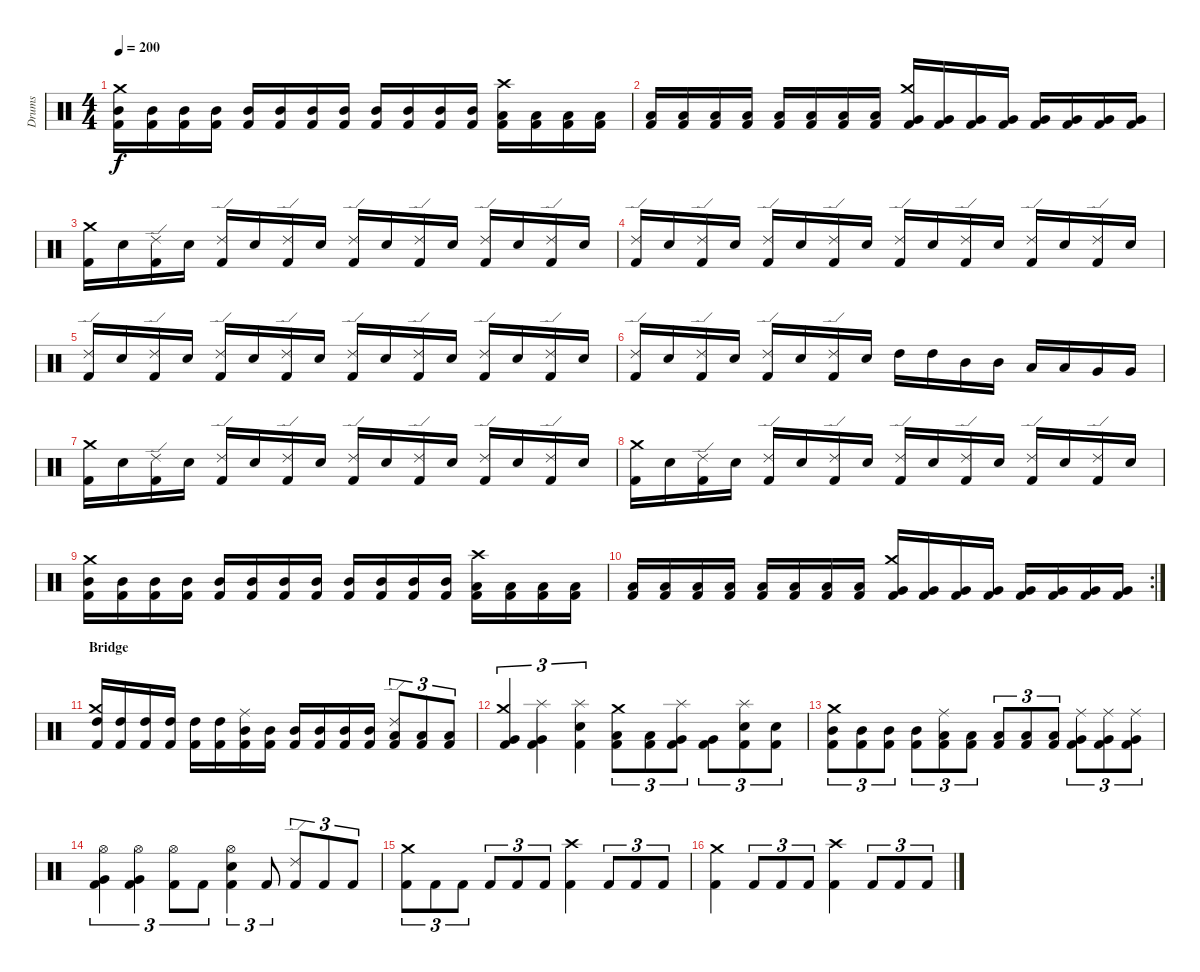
\track ("Drums" "Drums") {instrument percussion}
\staff {score}
\articulation defaults
\ts (4 4)
\tempo 200
\clef neutral
\ks c
("Kick (hit) 2" "Mid Tom (hit)" "Crash medium (hit)").16{dy f} ("Kick (hit) 2" "Mid Tom (hit)").16 ("Kick (hit) 2" "Mid Tom (hit)").16 ("Kick (hit) 2" "Mid Tom (hit)").16 ("Kick (hit) 2" "Mid Tom (hit)").16 ("Kick (hit) 2" "Mid Tom (hit)").16 ("Kick (hit) 2" "Mid Tom (hit)").16 ("Kick (hit) 2" "Mid Tom (hit)").16 ("Kick (hit) 2" "Mid Tom (hit)").16 ("Kick (hit) 2" "Mid Tom (hit)").16 ("Kick (hit) 2" "Mid Tom (hit)").16 ("Kick (hit) 2" "Mid Tom (hit)").16 ("Kick (hit) 2" "Low Tom (hit)" "Crash high (hit)").16 ("Kick (hit) 2" "Low Tom (hit)").16 ("Kick (hit) 2" "Low Tom (hit)").16 ("Kick (hit) 2" "Low Tom (hit)").16 |
("Kick (hit) 2" "Low Tom (hit)").16 ("Kick (hit) 2" "Low Tom (hit)").16 ("Kick (hit) 2" "Low Tom (hit)").16 ("Kick (hit) 2" "Low Tom (hit)").16 ("Kick (hit) 2" "Low Tom (hit)").16 ("Kick (hit) 2" "Low Tom (hit)").16 ("Kick (hit) 2" "Low Tom (hit)").16 ("Kick (hit) 2" "Low Tom (hit)").16 ("Kick (hit) 2" "Very Low Tom (hit)" "Crash medium (hit)").16 ("Kick (hit) 2" "Very Low Tom (hit)").16 ("Kick (hit) 2" "Very Low Tom (hit)").16 ("Kick (hit) 2" "Very Low Tom (hit)").16 ("Kick (hit) 2" "Very Low Tom (hit)").16 ("Kick (hit) 2" "Very Low Tom (hit)").16 ("Kick (hit) 2" "Very Low Tom (hit)").16 ("Kick (hit) 2" "Very Low Tom (hit)").16 |
("Kick (hit) 2" "Crash medium (hit)").16 "Electric Snare (hit)".16 ("Kick (hit) 2" "Ride (edge) 2").16 "Electric Snare (hit)".16 ("Kick (hit) 2" "Ride (edge) 2").16 "Electric Snare (hit)".16 ("Kick (hit) 2" "Ride (edge) 2").16 "Electric Snare (hit)".16 ("Kick (hit) 2" "Ride (edge) 2").16 "Electric Snare (hit)".16 ("Kick (hit) 2" "Ride (edge) 2").16 "Electric Snare (hit)".16 ("Kick (hit) 2" "Ride (edge) 2").16 "Electric Snare (hit)".16 ("Kick (hit) 2" "Ride (edge) 2").16 "Electric Snare (hit)".16 |
("Kick (hit) 2" "Ride (edge) 2").16 "Electric Snare (hit)".16 ("Kick (hit) 2" "Ride (edge) 2").16 "Electric Snare (hit)".16 ("Kick (hit) 2" "Ride (edge) 2").16 "Electric Snare (hit)".16 ("Kick (hit) 2" "Ride (edge) 2").16 "Electric Snare (hit)".16 ("Kick (hit) 2" "Ride (edge) 2").16 "Electric Snare (hit)".16 ("Kick (hit) 2" "Ride (edge) 2").16 "Electric Snare (hit)".16 ("Kick (hit) 2" "Ride (edge) 2").16 "Electric Snare (hit)".16 ("Kick (hit) 2" "Ride (edge) 2").16 "Electric Snare (hit)".16 |
("Kick (hit) 2" "Ride (edge) 2").16 "Electric Snare (hit)".16 ("Kick (hit) 2" "Ride (edge) 2").16 "Electric Snare (hit)".16 ("Kick (hit) 2" "Ride (edge) 2").16 "Electric Snare (hit)".16 ("Kick (hit) 2" "Ride (edge) 2").16 "Electric Snare (hit)".16 ("Kick (hit) 2" "Ride (edge) 2").16 "Electric Snare (hit)".16 ("Kick (hit) 2" "Ride (edge) 2").16 "Electric Snare (hit)".16 ("Kick (hit) 2" "Ride (edge) 2").16 "Electric Snare (hit)".16 ("Kick (hit) 2" "Ride (edge) 2").16 "Electric Snare (hit)".16 |
("Kick (hit) 2" "Ride (edge) 2").16 "Electric Snare (hit)".16 ("Kick (hit) 2" "Ride (edge) 2").16 "Electric Snare (hit)".16 ("Kick (hit) 2" "Ride (edge) 2").16 "Electric Snare (hit)".16 ("Kick (hit) 2" "Ride (edge) 2").16 "Electric Snare (hit)".16 "High Tom (hit)".16 "High Tom (hit)".16 "Mid Tom (hit)".16 "Mid Tom (hit)".16 "Low Tom (hit)".16 "Low Tom (hit)".16 "Very Low Tom (hit)".16 "Very Low Tom (hit)".16 |
("Kick (hit) 2" "Crash medium (hit)").16 "Electric Snare (hit)".16 ("Kick (hit) 2" "Ride (edge) 2").16 "Electric Snare (hit)".16 ("Kick (hit) 2" "Ride (edge) 2").16 "Electric Snare (hit)".16 ("Kick (hit) 2" "Ride (edge) 2").16 "Electric Snare (hit)".16 ("Kick (hit) 2" "Ride (edge) 2").16 "Electric Snare (hit)".16 ("Kick (hit) 2" "Ride (edge) 2").16 "Electric Snare (hit)".16 ("Kick (hit) 2" "Ride (edge) 2").16 "Electric Snare (hit)".16 ("Kick (hit) 2" "Ride (edge) 2").16 "Electric Snare (hit)".16 |
("Kick (hit) 2" "Crash medium (hit)").16 "Electric Snare (hit)".16 ("Kick (hit) 2" "Ride (edge) 2").16 "Electric Snare (hit)".16 ("Kick (hit) 2" "Ride (edge) 2").16 "Electric Snare (hit)".16 ("Kick (hit) 2" "Ride (edge) 2").16 "Electric Snare (hit)".16 ("Kick (hit) 2" "Ride (edge) 2").16 "Electric Snare (hit)".16 ("Kick (hit) 2" "Ride (edge) 2").16 "Electric Snare (hit)".16 ("Kick (hit) 2" "Ride (edge) 2").16 "Electric Snare (hit)".16 ("Kick (hit) 2" "Ride (edge) 2").16 "Electric Snare (hit)".16 |
("Kick (hit) 2" "Mid Tom (hit)" "Crash medium (hit)").16 ("Kick (hit) 2" "Mid Tom (hit)").16 ("Kick (hit) 2" "Mid Tom (hit)").16 ("Kick (hit) 2" "Mid Tom (hit)").16 ("Kick (hit) 2" "Mid Tom (hit)").16 ("Kick (hit) 2" "Mid Tom (hit)").16 ("Kick (hit) 2" "Mid Tom (hit)").16 ("Kick (hit) 2" "Mid Tom (hit)").16 ("Kick (hit) 2" "Mid Tom (hit)").16 ("Kick (hit) 2" "Mid Tom (hit)").16 ("Kick (hit) 2" "Mid Tom (hit)").16 ("Kick (hit) 2" "Mid Tom (hit)").16 ("Kick (hit) 2" "Low Tom (hit)" "Crash high (hit)").16 ("Kick (hit) 2" "Low Tom (hit)").16 ("Kick (hit) 2" "Low Tom (hit)").16 ("Kick (hit) 2" "Low Tom (hit)").16 |
\rc 2
("Kick (hit) 2" "Low Tom (hit)").16 ("Kick (hit) 2" "Low Tom (hit)").16 ("Kick (hit) 2" "Low Tom (hit)").16 ("Kick (hit) 2" "Low Tom (hit)").16 ("Kick (hit) 2" "Low Tom (hit)").16 ("Kick (hit) 2" "Low Tom (hit)").16 ("Kick (hit) 2" "Low Tom (hit)").16 ("Kick (hit) 2" "Low Tom (hit)").16 ("Kick (hit) 2" "Very Low Tom (hit)" "Crash medium (hit)").16 ("Kick (hit) 2" "Very Low Tom (hit)").16 ("Kick (hit) 2" "Very Low Tom (hit)").16 ("Kick (hit) 2" "Very Low Tom (hit)").16 ("Kick (hit) 2" "Very Low Tom (hit)").16 ("Kick (hit) 2" "Very Low Tom (hit)").16 ("Kick (hit) 2" "Very Low Tom (hit)").16 ("Kick (hit) 2" "Very Low Tom (hit)").16 |
\section ("" "Bridge")
("Kick (hit) 2" "High Tom (hit)" "Crash medium (hit)").16 ("Kick (hit) 2" "High Tom (hit)").16 ("Kick (hit) 2" "High Tom (hit)").16 ("Kick (hit) 2" "High Tom (hit)").16 ("Kick (hit) 2" "High Tom (hit)").16 ("Kick (hit) 2" "High Tom (hit)").16 ("Kick (hit) 2" "Mid Tom (hit)" "Ride (middle)").16 ("Kick (hit) 2" "Mid Tom (hit)").16 ("Kick (hit) 2" "Mid Tom (hit)").16 ("Kick (hit) 2" "Mid Tom (hit)").16 ("Kick (hit) 2" "Mid Tom (hit)").16 ("Kick (hit) 2" "Mid Tom (hit)").16 ("Kick (hit) 2" "Low Tom (hit)" "Ride (edge) 2").8{tu (3 2)} ("Kick (hit) 2" "Low Tom (hit)").8{tu (3 2)} ("Kick (hit) 2" "Low Tom (hit)").8{tu (3 2)} |
("Kick (hit) 2" "Very Low Tom (hit)" "Crash medium (hit)").4{tu (3 2)} ("Kick (hit) 2" "Very Low Tom (hit)" "Splash (hit)").4{tu (3 2)} ("Kick (hit) 2" "Electric Snare (hit)" "Splash (hit)").4{tu (3 2)} ("Kick (hit) 2" "Low Tom (hit)" "Crash medium (hit)").8{tu (3 2)} ("Kick (hit) 2" "Low Tom (hit)").8{tu (3 2)} ("Kick (hit) 2" "Very Low Tom (hit)" "Splash (hit)").8{tu (3 2)} ("Kick (hit) 2" "Very Low Tom (hit)").8{tu (3 2)} ("Kick (hit) 2" "Electric Snare (hit)" "Splash (hit)").8{tu (3 2)} ("Kick (hit) 2" "Electric Snare (hit)").8{tu (3 2)} |
("Kick (hit) 2" "Mid Tom (hit)" "Crash medium (hit)").8{tu (3 2)} ("Kick (hit) 2" "Mid Tom (hit)").8{tu (3 2)} ("Kick (hit) 2" "Mid Tom (hit)").8{tu (3 2)} ("Kick (hit) 2" "Mid Tom (hit)").8{tu (3 2)} ("Kick (hit) 2" "Low Tom (hit)" "Ride (middle)").8{tu (3 2)} ("Kick (hit) 2" "Low Tom (hit)").8{tu (3 2)} ("Kick (hit) 2" "Low Tom (hit)").8{tu (3 2)} ("Kick (hit) 2" "Low Tom (hit)").8{tu (3 2)} ("Kick (hit) 2" "Low Tom (hit)").8{tu (3 2)} ("Kick (hit) 2" "Very Low Tom (hit)" "Ride (middle)").8{tu (3 2)} ("Kick (hit) 2" "Very Low Tom (hit)" "Ride (middle)").8{tu (3 2)} ("Kick (hit) 2" "Very Low Tom (hit)" "Ride (middle)").8{tu (3 2)} |
("Kick (hit) 2" "Very Low Tom (hit)" "Hi-Hat (open)").4{tu (3 2)} ("Kick (hit) 2" "Very Low Tom (hit)" "Hi-Hat (open)").4{tu (3 2)} ("Kick (hit) 2" "Hi-Hat (open)").8{tu (3 2)} "Kick (hit) 2".8{tu (3 2)} ("Kick (hit) 2" "Electric Snare (hit)" "Hi-Hat (open)").4{tu (3 2)} "Kick (hit) 2".8{tu (3 2)} ("Kick (hit) 2" "Ride (edge) 2").8{tu (3 2)} "Kick (hit) 2".8{tu (3 2)} "Kick (hit) 2".8{tu (3 2)} |
("Kick (hit) 2" "Crash medium (hit)").8{tu (3 2)} "Kick (hit) 2".8{tu (3 2)} "Kick (hit) 2".8{tu (3 2)} "Kick (hit) 2".8{tu (3 2)} "Kick (hit) 2".8{tu (3 2)} "Kick (hit) 2".8{tu (3 2)} ("Kick (hit) 2" "Crash high (hit)").4 "Kick (hit) 2".8{tu (3 2)} "Kick (hit) 2".8{tu (3 2)} "Kick (hit) 2".8{tu (3 2)} |
("Kick (hit) 2" "Crash medium (hit)").4 "Kick (hit) 2".8{tu (3 2)} "Kick (hit) 2".8{tu (3 2)} "Kick (hit) 2".8{tu (3 2)} ("Kick (hit) 2" "Crash high (hit)").4 "Kick (hit) 2".8{tu (3 2)} "Kick (hit) 2".8{tu (3 2)} "Kick (hit) 2".8{tu (3 2)}
